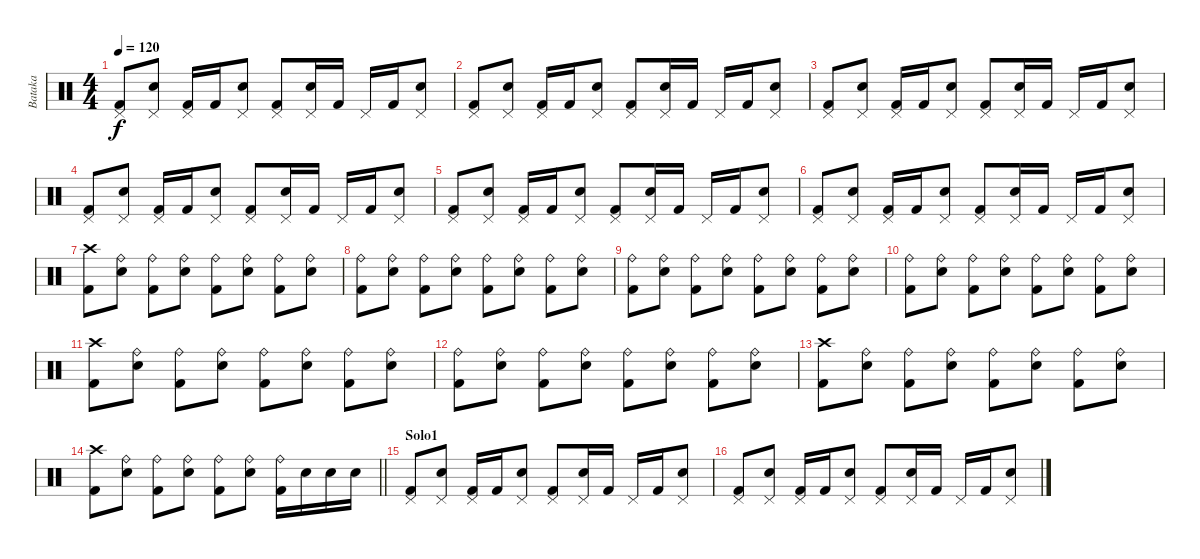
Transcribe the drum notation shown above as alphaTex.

\track ("Bataka" "Bataka") {instrument percussion}
\staff {score}
\articulation defaults
\ts (4 4)
\tempo 120
\clef neutral
\ks c
("Pedal Hi-Hat (hit)" "Kick (hit) 2").8{dy f} ("Pedal Hi-Hat (hit)" "Snare (hit) 2").8 ("Pedal Hi-Hat (hit)" "Kick (hit) 2").16 "Kick (hit) 2".16 ("Pedal Hi-Hat (hit)" "Snare (hit) 2").8 ("Pedal Hi-Hat (hit)" "Kick (hit) 2").8 ("Pedal Hi-Hat (hit)" "Snare (hit) 2").16 "Kick (hit) 2".16 "Pedal Hi-Hat (hit)".16 "Kick (hit) 2".16 ("Pedal Hi-Hat (hit)" "Snare (hit) 2").8 |
("Pedal Hi-Hat (hit)" "Kick (hit) 2").8 ("Pedal Hi-Hat (hit)" "Snare (hit) 2").8 ("Pedal Hi-Hat (hit)" "Kick (hit) 2").16 "Kick (hit) 2".16 ("Pedal Hi-Hat (hit)" "Snare (hit) 2").8 ("Pedal Hi-Hat (hit)" "Kick (hit) 2").8 ("Pedal Hi-Hat (hit)" "Snare (hit) 2").16 "Kick (hit) 2".16 "Pedal Hi-Hat (hit)".16 "Kick (hit) 2".16 ("Pedal Hi-Hat (hit)" "Snare (hit) 2").8 |
("Pedal Hi-Hat (hit)" "Kick (hit) 2").8 ("Pedal Hi-Hat (hit)" "Snare (hit) 2").8 ("Pedal Hi-Hat (hit)" "Kick (hit) 2").16 "Kick (hit) 2".16 ("Pedal Hi-Hat (hit)" "Snare (hit) 2").8 ("Pedal Hi-Hat (hit)" "Kick (hit) 2").8 ("Pedal Hi-Hat (hit)" "Snare (hit) 2").16 "Kick (hit) 2".16 "Pedal Hi-Hat (hit)".16 "Kick (hit) 2".16 ("Pedal Hi-Hat (hit)" "Snare (hit) 2").8 |
("Pedal Hi-Hat (hit)" "Kick (hit) 2").8 ("Pedal Hi-Hat (hit)" "Snare (hit) 2").8 ("Pedal Hi-Hat (hit)" "Kick (hit) 2").16 "Kick (hit) 2".16 ("Pedal Hi-Hat (hit)" "Snare (hit) 2").8 ("Pedal Hi-Hat (hit)" "Kick (hit) 2").8 ("Pedal Hi-Hat (hit)" "Snare (hit) 2").16 "Kick (hit) 2".16 "Pedal Hi-Hat (hit)".16 "Kick (hit) 2".16 ("Pedal Hi-Hat (hit)" "Snare (hit) 2").8 |
("Pedal Hi-Hat (hit)" "Kick (hit) 2").8 ("Pedal Hi-Hat (hit)" "Snare (hit) 2").8 ("Pedal Hi-Hat (hit)" "Kick (hit) 2").16 "Kick (hit) 2".16 ("Pedal Hi-Hat (hit)" "Snare (hit) 2").8 ("Pedal Hi-Hat (hit)" "Kick (hit) 2").8 ("Pedal Hi-Hat (hit)" "Snare (hit) 2").16 "Kick (hit) 2".16 "Pedal Hi-Hat (hit)".16 "Kick (hit) 2".16 ("Pedal Hi-Hat (hit)" "Snare (hit) 2").8 |
("Pedal Hi-Hat (hit)" "Kick (hit) 2").8 ("Pedal Hi-Hat (hit)" "Snare (hit) 2").8 ("Pedal Hi-Hat (hit)" "Kick (hit) 2").16 "Kick (hit) 2".16 ("Pedal Hi-Hat (hit)" "Snare (hit) 2").8 ("Pedal Hi-Hat (hit)" "Kick (hit) 2").8 ("Pedal Hi-Hat (hit)" "Snare (hit) 2").16 "Kick (hit) 2".16 "Pedal Hi-Hat (hit)".16 "Kick (hit) 2".16 ("Pedal Hi-Hat (hit)" "Snare (hit) 2").8 |
("Crash high (hit)" "Kick (hit) 2").8 ("Ride (bell)" "Snare (hit) 2").8 ("Ride (bell)" "Kick (hit) 2").8 ("Ride (bell)" "Snare (hit) 2").8 ("Ride (bell)" "Kick (hit) 2").8 ("Ride (bell)" "Snare (hit) 2").8 ("Ride (bell)" "Kick (hit) 2").8 ("Ride (bell)" "Snare (hit) 2").8 |
("Ride (bell)" "Kick (hit) 2").8 ("Ride (bell)" "Snare (hit) 2").8 ("Ride (bell)" "Kick (hit) 2").8 ("Ride (bell)" "Snare (hit) 2").8 ("Ride (bell)" "Kick (hit) 2").8 ("Ride (bell)" "Snare (hit) 2").8 ("Ride (bell)" "Kick (hit) 2").8 ("Ride (bell)" "Snare (hit) 2").8 |
("Ride (bell)" "Kick (hit) 2").8 ("Ride (bell)" "Snare (hit) 2").8 ("Ride (bell)" "Kick (hit) 2").8 ("Ride (bell)" "Snare (hit) 2").8 ("Ride (bell)" "Kick (hit) 2").8 ("Ride (bell)" "Snare (hit) 2").8 ("Ride (bell)" "Kick (hit) 2").8 ("Ride (bell)" "Snare (hit) 2").8 |
("Ride (bell)" "Kick (hit) 2").8 ("Ride (bell)" "Snare (hit) 2").8 ("Ride (bell)" "Kick (hit) 2").8 ("Ride (bell)" "Snare (hit) 2").8 ("Ride (bell)" "Kick (hit) 2").8 ("Ride (bell)" "Snare (hit) 2").8 ("Ride (bell)" "Kick (hit) 2").8 ("Ride (bell)" "Snare (hit) 2").8 |
("Crash high (hit)" "Kick (hit) 2").8 ("Ride (bell)" "Snare (hit) 2").8 ("Ride (bell)" "Kick (hit) 2").8 ("Ride (bell)" "Snare (hit) 2").8 ("Ride (bell)" "Kick (hit) 2").8 ("Ride (bell)" "Snare (hit) 2").8 ("Ride (bell)" "Kick (hit) 2").8 ("Ride (bell)" "Snare (hit) 2").8 |
("Ride (bell)" "Kick (hit) 2").8 ("Ride (bell)" "Snare (hit) 2").8 ("Ride (bell)" "Kick (hit) 2").8 ("Ride (bell)" "Snare (hit) 2").8 ("Ride (bell)" "Kick (hit) 2").8 ("Ride (bell)" "Snare (hit) 2").8 ("Ride (bell)" "Kick (hit) 2").8 ("Ride (bell)" "Snare (hit) 2").8 |
("Crash high (hit)" "Kick (hit) 2").8 ("Ride (bell)" "Snare (hit) 2").8 ("Ride (bell)" "Kick (hit) 2").8 ("Ride (bell)" "Snare (hit) 2").8 ("Ride (bell)" "Kick (hit) 2").8 ("Ride (bell)" "Snare (hit) 2").8 ("Ride (bell)" "Kick (hit) 2").8 ("Ride (bell)" "Snare (hit) 2").8 |
\barLineRight lightlight
("Crash high (hit)" "Kick (hit) 2").8 ("Ride (bell)" "Snare (hit) 2").8 ("Ride (bell)" "Kick (hit) 2").8 ("Ride (bell)" "Snare (hit) 2").8 ("Ride (bell)" "Kick (hit) 2").8 ("Ride (bell)" "Snare (hit) 2").8 ("Ride (bell)" "Kick (hit) 2").16 "Snare (hit) 2".16 "Snare (hit) 2".16 "Snare (hit) 2".16 |
\section ("" "Solo1")
("Pedal Hi-Hat (hit)" "Kick (hit) 2").8 ("Pedal Hi-Hat (hit)" "Snare (hit) 2").8 ("Pedal Hi-Hat (hit)" "Kick (hit) 2").16 "Kick (hit) 2".16 ("Pedal Hi-Hat (hit)" "Snare (hit) 2").8 ("Pedal Hi-Hat (hit)" "Kick (hit) 2").8 ("Pedal Hi-Hat (hit)" "Snare (hit) 2").16 "Kick (hit) 2".16 "Pedal Hi-Hat (hit)".16 "Kick (hit) 2".16 ("Pedal Hi-Hat (hit)" "Snare (hit) 2").8 |
("Pedal Hi-Hat (hit)" "Kick (hit) 2").8 ("Pedal Hi-Hat (hit)" "Snare (hit) 2").8 ("Pedal Hi-Hat (hit)" "Kick (hit) 2").16 "Kick (hit) 2".16 ("Pedal Hi-Hat (hit)" "Snare (hit) 2").8 ("Pedal Hi-Hat (hit)" "Kick (hit) 2").8 ("Pedal Hi-Hat (hit)" "Snare (hit) 2").16 "Kick (hit) 2".16 "Pedal Hi-Hat (hit)".16 "Kick (hit) 2".16 ("Pedal Hi-Hat (hit)" "Snare (hit) 2").8
